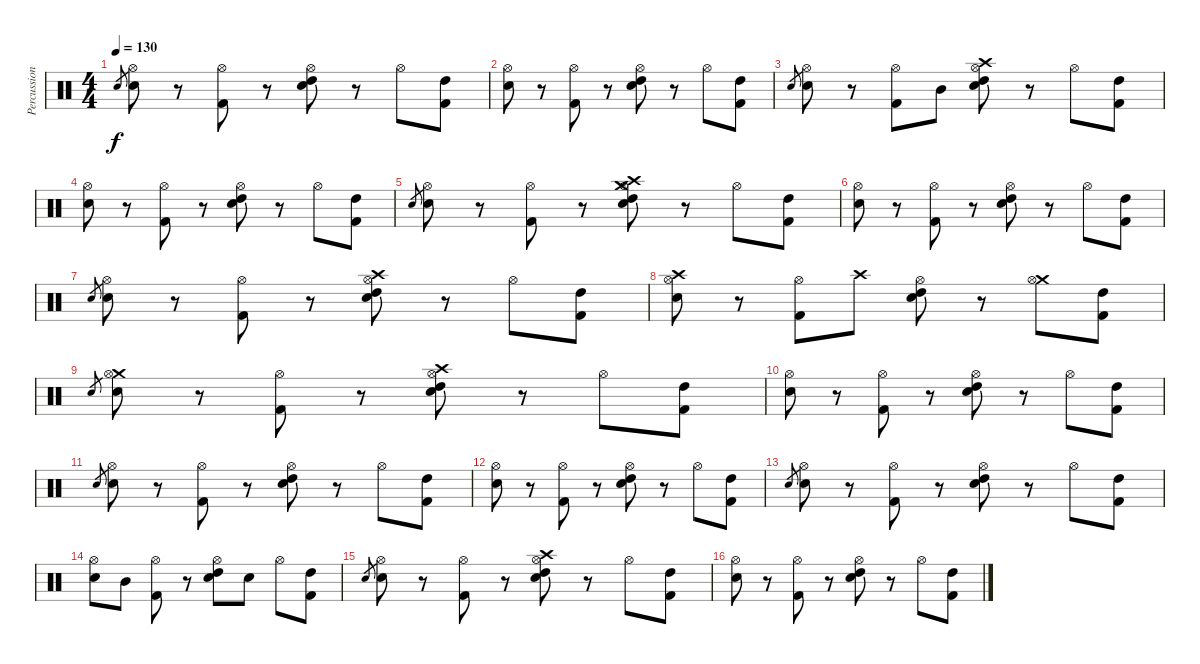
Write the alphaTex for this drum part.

\track ("Percussion" "Percussion") {instrument percussion}
\staff {score}
\articulation defaults
\ts (4 4)
\tempo 130
\clef neutral
\ks c "Snare (hit) 2".8{gr dy f}
("Hi-Hat (open)" "Snare (hit) 2").8 r.8 ("Hi-Hat (open)" "Kick (hit) 2").8 r.8 ("Hi-Hat (open)" "High Tom (hit)" "Snare (hit) 2").8 r.8 "Hi-Hat (open)".8 ("High Tom (hit)" "Kick (hit) 2").8 |
("Hi-Hat (open)" "Snare (hit) 2").8 r.8 ("Hi-Hat (open)" "Kick (hit) 2").8 r.8 ("Hi-Hat (open)" "High Tom (hit)" "Snare (hit) 2").8 r.8 "Hi-Hat (open)".8 ("High Tom (hit)" "Kick (hit) 2").8 |
"Snare (hit) 2".8{gr} ("Hi-Hat (open)" "Snare (hit) 2").8 r.8 ("Hi-Hat (open)" "Kick (hit) 2").8 "Mid Tom (hit)".8 ("Crash high (hit)" "Hi-Hat (open)" "High Tom (hit)" "Snare (hit) 2").8 r.8 "Hi-Hat (open)".8 ("High Tom (hit)" "Kick (hit) 2").8 |
("Hi-Hat (open)" "Snare (hit) 2").8 r.8 ("Hi-Hat (open)" "Kick (hit) 2").8 r.8 ("Hi-Hat (open)" "High Tom (hit)" "Snare (hit) 2").8 r.8 "Hi-Hat (open)".8 ("High Tom (hit)" "Kick (hit) 2").8 |
"Snare (hit) 2".8{gr} ("Hi-Hat (open)" "Snare (hit) 2").8 r.8 ("Hi-Hat (open)" "Kick (hit) 2").8 r.8 ("Crash high (hit)" "Hi-Hat (open)" "Crash medium (hit)" "High Tom (hit)" "Snare (hit) 2").8 r.8 "Hi-Hat (open)".8 ("High Tom (hit)" "Kick (hit) 2").8 |
("Hi-Hat (open)" "Snare (hit) 2").8 r.8 ("Hi-Hat (open)" "Kick (hit) 2").8 r.8 ("Hi-Hat (open)" "High Tom (hit)" "Snare (hit) 2").8 r.8 "Hi-Hat (open)".8 ("High Tom (hit)" "Kick (hit) 2").8 |
"Snare (hit) 2".8{gr} ("Hi-Hat (open)" "Snare (hit) 2").8 r.8 ("Hi-Hat (open)" "Kick (hit) 2").8 r.8 ("Crash high (hit)" "Hi-Hat (open)" "High Tom (hit)" "Snare (hit) 2").8 r.8 "Hi-Hat (open)".8 ("High Tom (hit)" "Kick (hit) 2").8 |
("Crash high (hit)" "Hi-Hat (open)" "Snare (hit) 2").8 r.8 ("Hi-Hat (open)" "Kick (hit) 2").8 "Crash high (hit)".8 ("Hi-Hat (open)" "High Tom (hit)" "Snare (hit) 2").8 r.8 ("Crash medium (hit)" "Hi-Hat (open)").8 ("High Tom (hit)" "Kick (hit) 2").8 |
"Snare (hit) 2".8{gr} ("Crash medium (hit)" "Hi-Hat (open)" "Snare (hit) 2").8 r.8 ("Hi-Hat (open)" "Kick (hit) 2").8 r.8 ("Crash high (hit)" "Hi-Hat (open)" "High Tom (hit)" "Snare (hit) 2").8 r.8 "Hi-Hat (open)".8 ("High Tom (hit)" "Kick (hit) 2").8 |
("Hi-Hat (open)" "Snare (hit) 2").8 r.8 ("Hi-Hat (open)" "Kick (hit) 2").8 r.8 ("Hi-Hat (open)" "High Tom (hit)" "Snare (hit) 2").8 r.8 "Hi-Hat (open)".8 ("High Tom (hit)" "Kick (hit) 2").8 |
"Snare (hit) 2".8{gr} ("Hi-Hat (open)" "Snare (hit) 2").8 r.8 ("Hi-Hat (open)" "Kick (hit) 2").8 r.8 ("Hi-Hat (open)" "High Tom (hit)" "Snare (hit) 2").8 r.8 "Hi-Hat (open)".8 ("High Tom (hit)" "Kick (hit) 2").8 |
("Hi-Hat (open)" "Snare (hit) 2").8 r.8 ("Hi-Hat (open)" "Kick (hit) 2").8 r.8 ("Hi-Hat (open)" "High Tom (hit)" "Snare (hit) 2").8 r.8 "Hi-Hat (open)".8 ("High Tom (hit)" "Kick (hit) 2").8 |
"Snare (hit) 2".8{gr} ("Hi-Hat (open)" "Snare (hit) 2").8 r.8 ("Hi-Hat (open)" "Kick (hit) 2").8 r.8 ("Hi-Hat (open)" "High Tom (hit)" "Snare (hit) 2").8 r.8 "Hi-Hat (open)".8 ("High Tom (hit)" "Kick (hit) 2").8 |
("Hi-Hat (open)" "Snare (hit) 2").8 "Mid Tom (hit)".8 ("Hi-Hat (open)" "Kick (hit) 2").8 r.8 ("Hi-Hat (open)" "High Tom (hit)" "Snare (hit) 2").8 "Snare (hit) 2".8 "Hi-Hat (open)".8 ("High Tom (hit)" "Kick (hit) 2").8 |
"Snare (hit) 2".8{gr} ("Hi-Hat (open)" "Snare (hit) 2").8 r.8 ("Hi-Hat (open)" "Kick (hit) 2").8 r.8 ("Crash high (hit)" "Hi-Hat (open)" "High Tom (hit)" "Snare (hit) 2").8 r.8 "Hi-Hat (open)".8 ("High Tom (hit)" "Kick (hit) 2").8 |
("Hi-Hat (open)" "Snare (hit) 2").8 r.8 ("Hi-Hat (open)" "Kick (hit) 2").8 r.8 ("Hi-Hat (open)" "High Tom (hit)" "Snare (hit) 2").8 r.8 "Hi-Hat (open)".8 ("High Tom (hit)" "Kick (hit) 2").8
